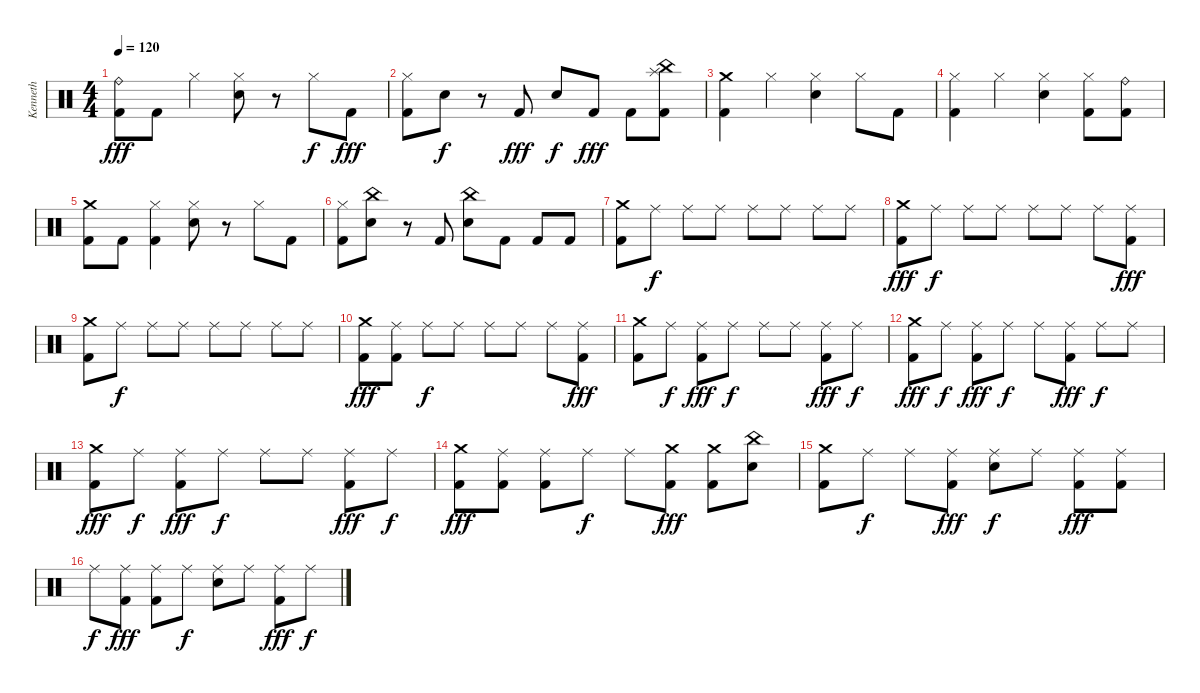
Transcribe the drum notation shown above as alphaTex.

\track ("Kenneth" "Kenneth") {instrument percussion}
\staff {score}
\articulation defaults
\ts (4 4)
\tempo 120
\clef neutral
\ks c
("Ride (bell)" "Kick (hit) 2").8{dy fff} "Kick (hit) 2".8 "Hi-Hat (closed)".4 ("Hi-Hat (closed)" "Snare (hit) 2").8 r.8 "Hi-Hat (closed)".8{dy f} "Kick (hit) 2".8{dy fff} |
("Hi-Hat (closed)" "Kick (hit) 2").8 "Snare (hit) 2".8{dy f} r.8 "Kick (hit) 2".8{dy fff} "Snare (hit) 2".8{dy f} "Kick (hit) 2".8{dy fff} "Kick (hit) 2".8 ("China (hit)" "Splash (hit)" "Kick (hit) 2").8 |
("Crash medium (hit)" "Kick (hit) 2").4 "Hi-Hat (closed)".4 ("Hi-Hat (closed)" "Snare (hit) 2").4 "Hi-Hat (closed)".8 "Kick (hit) 2".8 |
("Hi-Hat (closed)" "Kick (hit) 2").4 "Hi-Hat (closed)".4 ("Hi-Hat (closed)" "Snare (hit) 2").4 ("Hi-Hat (closed)" "Kick (hit) 2").8 ("Ride (bell)" "Kick (hit) 2").8 |
("Crash medium (hit)" "Kick (hit) 2").8 "Kick (hit) 2".8 ("Hi-Hat (closed)" "Kick (hit) 2").4 ("Hi-Hat (closed)" "Snare (hit) 2").8 r.8 "Hi-Hat (closed)".8 "Kick (hit) 2".8 |
("Hi-Hat (closed)" "Kick (hit) 2").8 ("China (hit)" "Snare (hit) 2").8 r.8 "Kick (hit) 2".8 ("China (hit)" "Snare (hit) 2").8 "Kick (hit) 2".8 "Kick (hit) 2".8 "Kick (hit) 2".8 |
("Crash medium (hit)" "Kick (hit) 2").8 "Ride (middle)".8{dy f} "Ride (middle)".8 "Ride (middle)".8 "Ride (middle)".8 "Ride (middle)".8 "Ride (middle)".8 "Ride (middle)".8 |
("Crash medium (hit)" "Kick (hit) 2").8{dy fff} "Ride (middle)".8{dy f} "Ride (middle)".8 "Ride (middle)".8 "Ride (middle)".8 "Ride (middle)".8 "Ride (middle)".8 ("Ride (middle)" "Kick (hit) 2").8{dy fff} |
("Crash medium (hit)" "Kick (hit) 2").8 "Ride (middle)".8{dy f} "Ride (middle)".8 "Ride (middle)".8 "Ride (middle)".8 "Ride (middle)".8 "Ride (middle)".8 "Ride (middle)".8 |
("Crash medium (hit)" "Kick (hit) 2").8{dy fff} ("Ride (middle)" "Kick (hit) 2").8 "Ride (middle)".8{dy f} "Ride (middle)".8 "Ride (middle)".8 "Ride (middle)".8 "Ride (middle)".8 ("Ride (middle)" "Kick (hit) 2").8{dy fff} |
("Crash medium (hit)" "Kick (hit) 2").8 "Ride (middle)".8{dy f} ("Ride (middle)" "Kick (hit) 2").8{dy fff} "Ride (middle)".8{dy f} "Ride (middle)".8 "Ride (middle)".8 ("Ride (middle)" "Kick (hit) 2").8{dy fff} "Ride (middle)".8{dy f} |
("Crash medium (hit)" "Kick (hit) 2").8{dy fff} "Ride (middle)".8{dy f} ("Ride (middle)" "Kick (hit) 2").8{dy fff} "Ride (middle)".8{dy f} "Ride (middle)".8 ("Ride (middle)" "Kick (hit) 2").8{dy fff} "Ride (middle)".8{dy f} "Ride (middle)".8 |
("Crash medium (hit)" "Kick (hit) 2").8{dy fff} "Ride (middle)".8{dy f} ("Ride (middle)" "Kick (hit) 2").8{dy fff} "Ride (middle)".8{dy f} "Ride (middle)".8 "Ride (middle)".8 ("Ride (middle)" "Kick (hit) 2").8{dy fff} "Ride (middle)".8{dy f} |
("Crash medium (hit)" "Kick (hit) 2").8{dy fff} ("Ride (middle)" "Kick (hit) 2").8 ("Ride (middle)" "Kick (hit) 2").8 "Ride (middle)".8{dy f} "Ride (middle)".8 ("Crash medium (hit)" "Kick (hit) 2").8{dy fff} ("Crash medium (hit)" "Kick (hit) 2").8 ("China (hit)" "Snare (hit) 2").8 |
("Crash medium (hit)" "Kick (hit) 2").8 "Ride (middle)".8{dy f} "Ride (middle)".8 ("Ride (middle)" "Kick (hit) 2").8{dy fff} ("Ride (middle)" "Snare (hit) 2").8{dy f} "Ride (middle)".8 ("Ride (middle)" "Kick (hit) 2").8{dy fff} ("Ride (middle)" "Kick (hit) 2").8 |
"Ride (middle)".8{dy f} ("Ride (middle)" "Kick (hit) 2").8{dy fff} ("Ride (middle)" "Kick (hit) 2").8 "Ride (middle)".8{dy f} ("Ride (middle)" "Snare (hit) 2").8 "Ride (middle)".8 ("Ride (middle)" "Kick (hit) 2").8{dy fff} "Ride (middle)".8{dy f}
